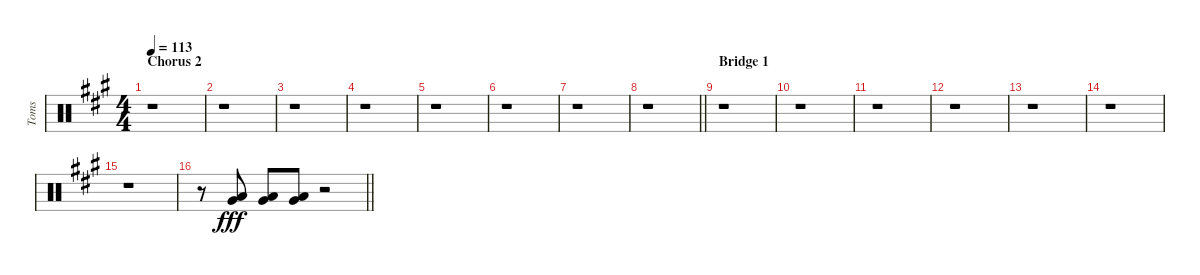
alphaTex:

\track ("Toms" "Toms") {instrument percussion}
\staff {score}
\articulation defaults
\ts (4 4)
\section ("" "Chorus 2")
\tempo 113
\clef neutral
\ks f#minor
r.1{dy fff} |
r.1 |
r.1 |
r.1 |
r.1 |
r.1 |
r.1 |
\barLineRight lightlight
r.1 |
\section ("" "Bridge 1")
r.1 |
r.1 |
r.1 |
r.1 |
r.1 |
r.1 |
r.1 |
\barLineRight lightlight
r.8{volume 16} ("Low Tom (hit)" "Very Low Tom (hit)").8{beam Up} ("Low Tom (hit)" "Very Low Tom (hit)").8{beam Up} ("Low Tom (hit)" "Very Low Tom (hit)").8{volume 0 beam Up} r.2
